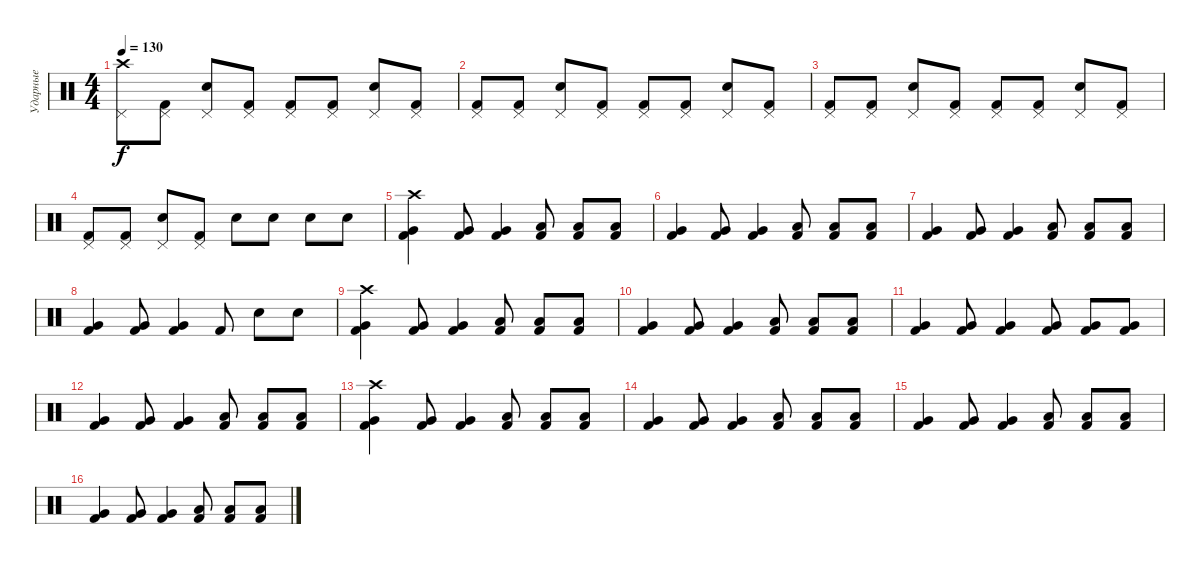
\track ("Ударные" "Ударные") {instrument percussion}
\staff {score}
\articulation defaults
\ts (4 4)
\tempo 130
\clef neutral
\ks c
("Crash high (hit)" "Pedal Hi-Hat (hit)").8{dy f} ("Kick (hit) 2" "Pedal Hi-Hat (hit)").8 ("Snare (hit) 2" "Pedal Hi-Hat (hit)").8 ("Kick (hit) 2" "Pedal Hi-Hat (hit)").8 ("Kick (hit) 2" "Pedal Hi-Hat (hit)").8 ("Kick (hit) 2" "Pedal Hi-Hat (hit)").8 ("Snare (hit) 2" "Pedal Hi-Hat (hit)").8 ("Kick (hit) 2" "Pedal Hi-Hat (hit)").8 |
("Kick (hit) 2" "Pedal Hi-Hat (hit)").8 ("Kick (hit) 2" "Pedal Hi-Hat (hit)").8 ("Snare (hit) 2" "Pedal Hi-Hat (hit)").8 ("Kick (hit) 2" "Pedal Hi-Hat (hit)").8 ("Kick (hit) 2" "Pedal Hi-Hat (hit)").8 ("Kick (hit) 2" "Pedal Hi-Hat (hit)").8 ("Snare (hit) 2" "Pedal Hi-Hat (hit)").8 ("Kick (hit) 2" "Pedal Hi-Hat (hit)").8 |
("Kick (hit) 2" "Pedal Hi-Hat (hit)").8 ("Kick (hit) 2" "Pedal Hi-Hat (hit)").8 ("Snare (hit) 2" "Pedal Hi-Hat (hit)").8 ("Kick (hit) 2" "Pedal Hi-Hat (hit)").8 ("Kick (hit) 2" "Pedal Hi-Hat (hit)").8 ("Kick (hit) 2" "Pedal Hi-Hat (hit)").8 ("Snare (hit) 2" "Pedal Hi-Hat (hit)").8 ("Kick (hit) 2" "Pedal Hi-Hat (hit)").8 |
("Kick (hit) 2" "Pedal Hi-Hat (hit)").8 ("Kick (hit) 2" "Pedal Hi-Hat (hit)").8 ("Snare (hit) 2" "Pedal Hi-Hat (hit)").8 ("Kick (hit) 2" "Pedal Hi-Hat (hit)").8 "Snare (hit) 2".8 "Snare (hit) 2".8 "Snare (hit) 2".8 "Snare (hit) 2".8 |
("Kick (hit) 2" "Very Low Tom (hit)" "Crash high (hit)").4 ("Kick (hit) 2" "Very Low Tom (hit)").8 ("Kick (hit) 2" "Very Low Tom (hit)").4 ("Kick (hit) 2" "Low Floor Tom (hit)").8 ("Kick (hit) 2" "Low Floor Tom (hit)").8 ("Kick (hit) 2" "Low Floor Tom (hit)").8 |
("Kick (hit) 2" "Very Low Tom (hit)").4 ("Kick (hit) 2" "Very Low Tom (hit)").8 ("Kick (hit) 2" "Very Low Tom (hit)").4 ("Kick (hit) 2" "Low Floor Tom (hit)").8 ("Kick (hit) 2" "Low Floor Tom (hit)").8 ("Kick (hit) 2" "Low Floor Tom (hit)").8 |
("Kick (hit) 2" "Very Low Tom (hit)").4 ("Kick (hit) 2" "Very Low Tom (hit)").8 ("Kick (hit) 2" "Very Low Tom (hit)").4 ("Kick (hit) 2" "Low Floor Tom (hit)").8 ("Kick (hit) 2" "Low Floor Tom (hit)").8 ("Kick (hit) 2" "Low Floor Tom (hit)").8 |
("Kick (hit) 2" "Very Low Tom (hit)").4 ("Kick (hit) 2" "Very Low Tom (hit)").8 ("Kick (hit) 2" "Very Low Tom (hit)").4 "Kick (hit) 2".8 "Snare (hit) 2".8 "Snare (hit) 2".8 |
("Kick (hit) 2" "Very Low Tom (hit)" "Crash high (hit)").4 ("Kick (hit) 2" "Very Low Tom (hit)").8 ("Kick (hit) 2" "Very Low Tom (hit)").4 ("Kick (hit) 2" "Low Floor Tom (hit)").8 ("Kick (hit) 2" "Low Floor Tom (hit)").8 ("Kick (hit) 2" "Low Floor Tom (hit)").8 |
("Kick (hit) 2" "Very Low Tom (hit)").4 ("Kick (hit) 2" "Very Low Tom (hit)").8 ("Kick (hit) 2" "Very Low Tom (hit)").4 ("Kick (hit) 2" "Low Floor Tom (hit)").8 ("Kick (hit) 2" "Low Floor Tom (hit)").8 ("Kick (hit) 2" "Low Floor Tom (hit)").8 |
("Kick (hit) 2" "Very Low Tom (hit)").4 ("Kick (hit) 2" "Very Low Tom (hit)").8 ("Kick (hit) 2" "Very Low Tom (hit)").4 ("Kick (hit) 2" "Very Low Tom (hit)").8 ("Kick (hit) 2" "Very Low Tom (hit)").8 ("Kick (hit) 2" "Very Low Tom (hit)").8 |
("Kick (hit) 2" "Very Low Tom (hit)").4 ("Kick (hit) 2" "Very Low Tom (hit)").8 ("Kick (hit) 2" "Very Low Tom (hit)").4 ("Kick (hit) 2" "Low Floor Tom (hit)").8 ("Kick (hit) 2" "Low Floor Tom (hit)").8 ("Kick (hit) 2" "Low Floor Tom (hit)").8 |
("Kick (hit) 2" "Very Low Tom (hit)" "Crash high (hit)").4 ("Kick (hit) 2" "Very Low Tom (hit)").8 ("Kick (hit) 2" "Very Low Tom (hit)").4 ("Kick (hit) 2" "Low Floor Tom (hit)").8 ("Kick (hit) 2" "Low Floor Tom (hit)").8 ("Kick (hit) 2" "Low Floor Tom (hit)").8 |
("Kick (hit) 2" "Very Low Tom (hit)").4 ("Kick (hit) 2" "Very Low Tom (hit)").8 ("Kick (hit) 2" "Very Low Tom (hit)").4 ("Kick (hit) 2" "Low Floor Tom (hit)").8 ("Kick (hit) 2" "Low Floor Tom (hit)").8 ("Kick (hit) 2" "Low Floor Tom (hit)").8 |
("Kick (hit) 2" "Very Low Tom (hit)").4 ("Kick (hit) 2" "Very Low Tom (hit)").8 ("Kick (hit) 2" "Very Low Tom (hit)").4 ("Kick (hit) 2" "Low Floor Tom (hit)").8 ("Kick (hit) 2" "Low Floor Tom (hit)").8 ("Kick (hit) 2" "Low Floor Tom (hit)").8 |
("Kick (hit) 2" "Very Low Tom (hit)").4 ("Kick (hit) 2" "Very Low Tom (hit)").8 ("Kick (hit) 2" "Very Low Tom (hit)").4 ("Kick (hit) 2" "Low Floor Tom (hit)").8 ("Kick (hit) 2" "Low Floor Tom (hit)").8 ("Kick (hit) 2" "Low Floor Tom (hit)").8
